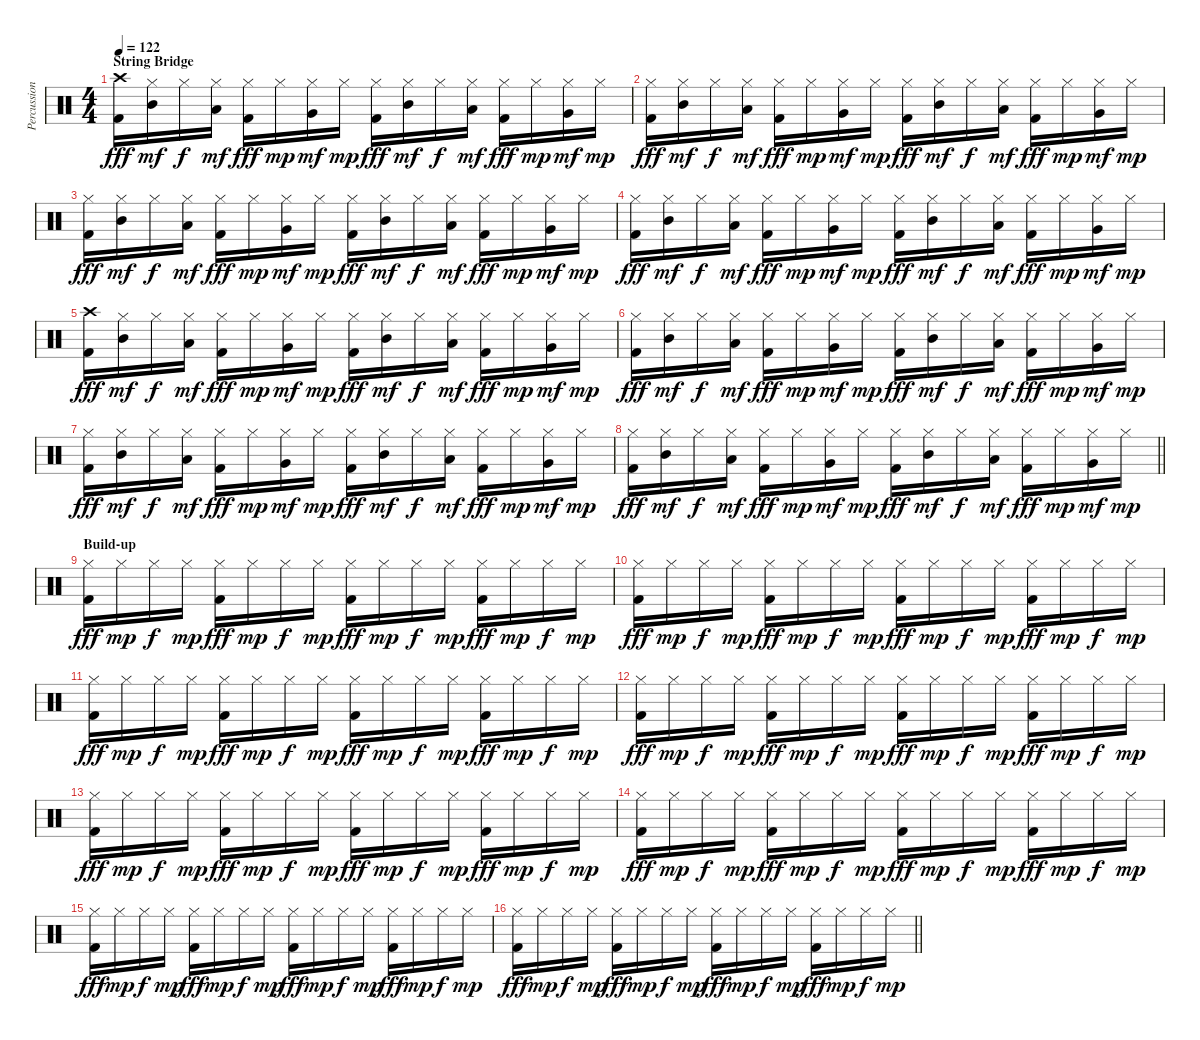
\track ("Percussions" "Percussion") {instrument percussion}
\staff {score}
\articulation defaults
\ts (4 4)
\section ("" "String Bridge")
\tempo 122
\clef neutral
\ks c
("Crash high (hit)" "Kick (hit) 2").16{dy fff} ("Hi-Hat (closed)" "Mid Tom (hit)").16{dy mf} "Hi-Hat (closed)".16{dy f} ("Hi-Hat (closed)" "Low Tom (hit)").16{dy mf} ("Hi-Hat (closed)" "Kick (hit) 2").16{dy fff} "Hi-Hat (closed)".16{dy mp} ("Hi-Hat (closed)" "Very Low Tom (hit)").16{dy mf} "Hi-Hat (closed)".16{dy mp} ("Hi-Hat (closed)" "Kick (hit) 2").16{dy fff} ("Hi-Hat (closed)" "Mid Tom (hit)").16{dy mf} "Hi-Hat (closed)".16{dy f} ("Hi-Hat (closed)" "Low Tom (hit)").16{dy mf} ("Hi-Hat (closed)" "Kick (hit) 2").16{dy fff} "Hi-Hat (closed)".16{dy mp} ("Hi-Hat (closed)" "Very Low Tom (hit)").16{dy mf} "Hi-Hat (closed)".16{dy mp} |
("Hi-Hat (closed)" "Kick (hit) 2").16{dy fff} ("Hi-Hat (closed)" "Mid Tom (hit)").16{dy mf} "Hi-Hat (closed)".16{dy f} ("Hi-Hat (closed)" "Low Tom (hit)").16{dy mf} ("Hi-Hat (closed)" "Kick (hit) 2").16{dy fff} "Hi-Hat (closed)".16{dy mp} ("Hi-Hat (closed)" "Very Low Tom (hit)").16{dy mf} "Hi-Hat (closed)".16{dy mp} ("Hi-Hat (closed)" "Kick (hit) 2").16{dy fff} ("Hi-Hat (closed)" "Mid Tom (hit)").16{dy mf} "Hi-Hat (closed)".16{dy f} ("Hi-Hat (closed)" "Low Tom (hit)").16{dy mf} ("Hi-Hat (closed)" "Kick (hit) 2").16{dy fff} "Hi-Hat (closed)".16{dy mp} ("Hi-Hat (closed)" "Very Low Tom (hit)").16{dy mf} "Hi-Hat (closed)".16{dy mp} |
("Hi-Hat (closed)" "Kick (hit) 2").16{dy fff} ("Hi-Hat (closed)" "Mid Tom (hit)").16{dy mf} "Hi-Hat (closed)".16{dy f} ("Hi-Hat (closed)" "Low Tom (hit)").16{dy mf} ("Hi-Hat (closed)" "Kick (hit) 2").16{dy fff} "Hi-Hat (closed)".16{dy mp} ("Hi-Hat (closed)" "Very Low Tom (hit)").16{dy mf} "Hi-Hat (closed)".16{dy mp} ("Hi-Hat (closed)" "Kick (hit) 2").16{dy fff} ("Hi-Hat (closed)" "Mid Tom (hit)").16{dy mf} "Hi-Hat (closed)".16{dy f} ("Hi-Hat (closed)" "Low Tom (hit)").16{dy mf} ("Hi-Hat (closed)" "Kick (hit) 2").16{dy fff} "Hi-Hat (closed)".16{dy mp} ("Hi-Hat (closed)" "Very Low Tom (hit)").16{dy mf} "Hi-Hat (closed)".16{dy mp} |
("Hi-Hat (closed)" "Kick (hit) 2").16{dy fff} ("Hi-Hat (closed)" "Mid Tom (hit)").16{dy mf} "Hi-Hat (closed)".16{dy f} ("Hi-Hat (closed)" "Low Tom (hit)").16{dy mf} ("Hi-Hat (closed)" "Kick (hit) 2").16{dy fff} "Hi-Hat (closed)".16{dy mp} ("Hi-Hat (closed)" "Very Low Tom (hit)").16{dy mf} "Hi-Hat (closed)".16{dy mp} ("Hi-Hat (closed)" "Kick (hit) 2").16{dy fff} ("Hi-Hat (closed)" "Mid Tom (hit)").16{dy mf} "Hi-Hat (closed)".16{dy f} ("Hi-Hat (closed)" "Low Tom (hit)").16{dy mf} ("Hi-Hat (closed)" "Kick (hit) 2").16{dy fff} "Hi-Hat (closed)".16{dy mp} ("Hi-Hat (closed)" "Very Low Tom (hit)").16{dy mf} "Hi-Hat (closed)".16{dy mp} |
("Crash high (hit)" "Kick (hit) 2").16{dy fff} ("Hi-Hat (closed)" "Mid Tom (hit)").16{dy mf} "Hi-Hat (closed)".16{dy f} ("Hi-Hat (closed)" "Low Tom (hit)").16{dy mf} ("Hi-Hat (closed)" "Kick (hit) 2").16{dy fff} "Hi-Hat (closed)".16{dy mp} ("Hi-Hat (closed)" "Very Low Tom (hit)").16{dy mf} "Hi-Hat (closed)".16{dy mp} ("Hi-Hat (closed)" "Kick (hit) 2").16{dy fff} ("Hi-Hat (closed)" "Mid Tom (hit)").16{dy mf} "Hi-Hat (closed)".16{dy f} ("Hi-Hat (closed)" "Low Tom (hit)").16{dy mf} ("Hi-Hat (closed)" "Kick (hit) 2").16{dy fff} "Hi-Hat (closed)".16{dy mp} ("Hi-Hat (closed)" "Very Low Tom (hit)").16{dy mf} "Hi-Hat (closed)".16{dy mp} |
("Hi-Hat (closed)" "Kick (hit) 2").16{dy fff} ("Hi-Hat (closed)" "Mid Tom (hit)").16{dy mf} "Hi-Hat (closed)".16{dy f} ("Hi-Hat (closed)" "Low Tom (hit)").16{dy mf} ("Hi-Hat (closed)" "Kick (hit) 2").16{dy fff} "Hi-Hat (closed)".16{dy mp} ("Hi-Hat (closed)" "Very Low Tom (hit)").16{dy mf} "Hi-Hat (closed)".16{dy mp} ("Hi-Hat (closed)" "Kick (hit) 2").16{dy fff} ("Hi-Hat (closed)" "Mid Tom (hit)").16{dy mf} "Hi-Hat (closed)".16{dy f} ("Hi-Hat (closed)" "Low Tom (hit)").16{dy mf} ("Hi-Hat (closed)" "Kick (hit) 2").16{dy fff} "Hi-Hat (closed)".16{dy mp} ("Hi-Hat (closed)" "Very Low Tom (hit)").16{dy mf} "Hi-Hat (closed)".16{dy mp} |
("Hi-Hat (closed)" "Kick (hit) 2").16{dy fff} ("Hi-Hat (closed)" "Mid Tom (hit)").16{dy mf} "Hi-Hat (closed)".16{dy f} ("Hi-Hat (closed)" "Low Tom (hit)").16{dy mf} ("Hi-Hat (closed)" "Kick (hit) 2").16{dy fff} "Hi-Hat (closed)".16{dy mp} ("Hi-Hat (closed)" "Very Low Tom (hit)").16{dy mf} "Hi-Hat (closed)".16{dy mp} ("Hi-Hat (closed)" "Kick (hit) 2").16{dy fff} ("Hi-Hat (closed)" "Mid Tom (hit)").16{dy mf} "Hi-Hat (closed)".16{dy f} ("Hi-Hat (closed)" "Low Tom (hit)").16{dy mf} ("Hi-Hat (closed)" "Kick (hit) 2").16{dy fff} "Hi-Hat (closed)".16{dy mp} ("Hi-Hat (closed)" "Very Low Tom (hit)").16{dy mf} "Hi-Hat (closed)".16{dy mp} |
\barLineRight lightlight
("Hi-Hat (closed)" "Kick (hit) 2").16{dy fff} ("Hi-Hat (closed)" "Mid Tom (hit)").16{dy mf} "Hi-Hat (closed)".16{dy f} ("Hi-Hat (closed)" "Low Tom (hit)").16{dy mf} ("Hi-Hat (closed)" "Kick (hit) 2").16{dy fff} "Hi-Hat (closed)".16{dy mp} ("Hi-Hat (closed)" "Very Low Tom (hit)").16{dy mf} "Hi-Hat (closed)".16{dy mp} ("Hi-Hat (closed)" "Kick (hit) 2").16{dy fff} ("Hi-Hat (closed)" "Mid Tom (hit)").16{dy mf} "Hi-Hat (closed)".16{dy f} ("Hi-Hat (closed)" "Low Tom (hit)").16{dy mf} ("Hi-Hat (closed)" "Kick (hit) 2").16{dy fff} "Hi-Hat (closed)".16{dy mp} ("Hi-Hat (closed)" "Very Low Tom (hit)").16{dy mf} "Hi-Hat (closed)".16{dy mp} |
\section ("" "Build-up")
("Hi-Hat (closed)" "Kick (hit) 2").16{dy fff} "Hi-Hat (closed)".16{dy mp} "Hi-Hat (closed)".16{dy f} "Hi-Hat (closed)".16{dy mp} ("Hi-Hat (closed)" "Kick (hit) 2").16{dy fff} "Hi-Hat (closed)".16{dy mp} "Hi-Hat (closed)".16{dy f} "Hi-Hat (closed)".16{dy mp} ("Hi-Hat (closed)" "Kick (hit) 2").16{dy fff} "Hi-Hat (closed)".16{dy mp} "Hi-Hat (closed)".16{dy f} "Hi-Hat (closed)".16{dy mp} ("Hi-Hat (closed)" "Kick (hit) 2").16{dy fff} "Hi-Hat (closed)".16{dy mp} "Hi-Hat (closed)".16{dy f} "Hi-Hat (closed)".16{dy mp} |
("Hi-Hat (closed)" "Kick (hit) 2").16{dy fff} "Hi-Hat (closed)".16{dy mp} "Hi-Hat (closed)".16{dy f} "Hi-Hat (closed)".16{dy mp} ("Hi-Hat (closed)" "Kick (hit) 2").16{dy fff} "Hi-Hat (closed)".16{dy mp} "Hi-Hat (closed)".16{dy f} "Hi-Hat (closed)".16{dy mp} ("Hi-Hat (closed)" "Kick (hit) 2").16{dy fff} "Hi-Hat (closed)".16{dy mp} "Hi-Hat (closed)".16{dy f} "Hi-Hat (closed)".16{dy mp} ("Hi-Hat (closed)" "Kick (hit) 2").16{dy fff} "Hi-Hat (closed)".16{dy mp} "Hi-Hat (closed)".16{dy f} "Hi-Hat (closed)".16{dy mp} |
("Hi-Hat (closed)" "Kick (hit) 2").16{dy fff} "Hi-Hat (closed)".16{dy mp} "Hi-Hat (closed)".16{dy f} "Hi-Hat (closed)".16{dy mp} ("Hi-Hat (closed)" "Kick (hit) 2").16{dy fff} "Hi-Hat (closed)".16{dy mp} "Hi-Hat (closed)".16{dy f} "Hi-Hat (closed)".16{dy mp} ("Hi-Hat (closed)" "Kick (hit) 2").16{dy fff} "Hi-Hat (closed)".16{dy mp} "Hi-Hat (closed)".16{dy f} "Hi-Hat (closed)".16{dy mp} ("Hi-Hat (closed)" "Kick (hit) 2").16{dy fff} "Hi-Hat (closed)".16{dy mp} "Hi-Hat (closed)".16{dy f} "Hi-Hat (closed)".16{dy mp} |
("Hi-Hat (closed)" "Kick (hit) 2").16{dy fff} "Hi-Hat (closed)".16{dy mp} "Hi-Hat (closed)".16{dy f} "Hi-Hat (closed)".16{dy mp} ("Hi-Hat (closed)" "Kick (hit) 2").16{dy fff} "Hi-Hat (closed)".16{dy mp} "Hi-Hat (closed)".16{dy f} "Hi-Hat (closed)".16{dy mp} ("Hi-Hat (closed)" "Kick (hit) 2").16{dy fff} "Hi-Hat (closed)".16{dy mp} "Hi-Hat (closed)".16{dy f} "Hi-Hat (closed)".16{dy mp} ("Hi-Hat (closed)" "Kick (hit) 2").16{dy fff} "Hi-Hat (closed)".16{dy mp} "Hi-Hat (closed)".16{dy f} "Hi-Hat (closed)".16{dy mp} |
("Hi-Hat (closed)" "Kick (hit) 2").16{dy fff} "Hi-Hat (closed)".16{dy mp} "Hi-Hat (closed)".16{dy f} "Hi-Hat (closed)".16{dy mp} ("Hi-Hat (closed)" "Kick (hit) 2").16{dy fff} "Hi-Hat (closed)".16{dy mp} "Hi-Hat (closed)".16{dy f} "Hi-Hat (closed)".16{dy mp} ("Hi-Hat (closed)" "Kick (hit) 2").16{dy fff} "Hi-Hat (closed)".16{dy mp} "Hi-Hat (closed)".16{dy f} "Hi-Hat (closed)".16{dy mp} ("Hi-Hat (closed)" "Kick (hit) 2").16{dy fff} "Hi-Hat (closed)".16{dy mp} "Hi-Hat (closed)".16{dy f} "Hi-Hat (closed)".16{dy mp} |
("Hi-Hat (closed)" "Kick (hit) 2").16{dy fff} "Hi-Hat (closed)".16{dy mp} "Hi-Hat (closed)".16{dy f} "Hi-Hat (closed)".16{dy mp} ("Hi-Hat (closed)" "Kick (hit) 2").16{dy fff} "Hi-Hat (closed)".16{dy mp} "Hi-Hat (closed)".16{dy f} "Hi-Hat (closed)".16{dy mp} ("Hi-Hat (closed)" "Kick (hit) 2").16{dy fff} "Hi-Hat (closed)".16{dy mp} "Hi-Hat (closed)".16{dy f} "Hi-Hat (closed)".16{dy mp} ("Hi-Hat (closed)" "Kick (hit) 2").16{dy fff} "Hi-Hat (closed)".16{dy mp} "Hi-Hat (closed)".16{dy f} "Hi-Hat (closed)".16{dy mp} |
("Hi-Hat (closed)" "Kick (hit) 2").16{dy fff} "Hi-Hat (closed)".16{dy mp} "Hi-Hat (closed)".16{dy f} "Hi-Hat (closed)".16{dy mp} ("Hi-Hat (closed)" "Kick (hit) 2").16{dy fff} "Hi-Hat (closed)".16{dy mp} "Hi-Hat (closed)".16{dy f} "Hi-Hat (closed)".16{dy mp} ("Hi-Hat (closed)" "Kick (hit) 2").16{dy fff} "Hi-Hat (closed)".16{dy mp} "Hi-Hat (closed)".16{dy f} "Hi-Hat (closed)".16{dy mp} ("Hi-Hat (closed)" "Kick (hit) 2").16{dy fff} "Hi-Hat (closed)".16{dy mp} "Hi-Hat (closed)".16{dy f} "Hi-Hat (closed)".16{dy mp} |
\barLineRight lightlight
("Hi-Hat (closed)" "Kick (hit) 2").16{dy fff} "Hi-Hat (closed)".16{dy mp} "Hi-Hat (closed)".16{dy f} "Hi-Hat (closed)".16{dy mp} ("Hi-Hat (closed)" "Kick (hit) 2").16{dy fff} "Hi-Hat (closed)".16{dy mp} "Hi-Hat (closed)".16{dy f} "Hi-Hat (closed)".16{dy mp} ("Hi-Hat (closed)" "Kick (hit) 2").16{dy fff} "Hi-Hat (closed)".16{dy mp} "Hi-Hat (closed)".16{dy f} "Hi-Hat (closed)".16{dy mp} ("Hi-Hat (closed)" "Kick (hit) 2").16{dy fff} "Hi-Hat (closed)".16{dy mp} "Hi-Hat (closed)".16{dy f} "Hi-Hat (closed)".16{dy mp}
